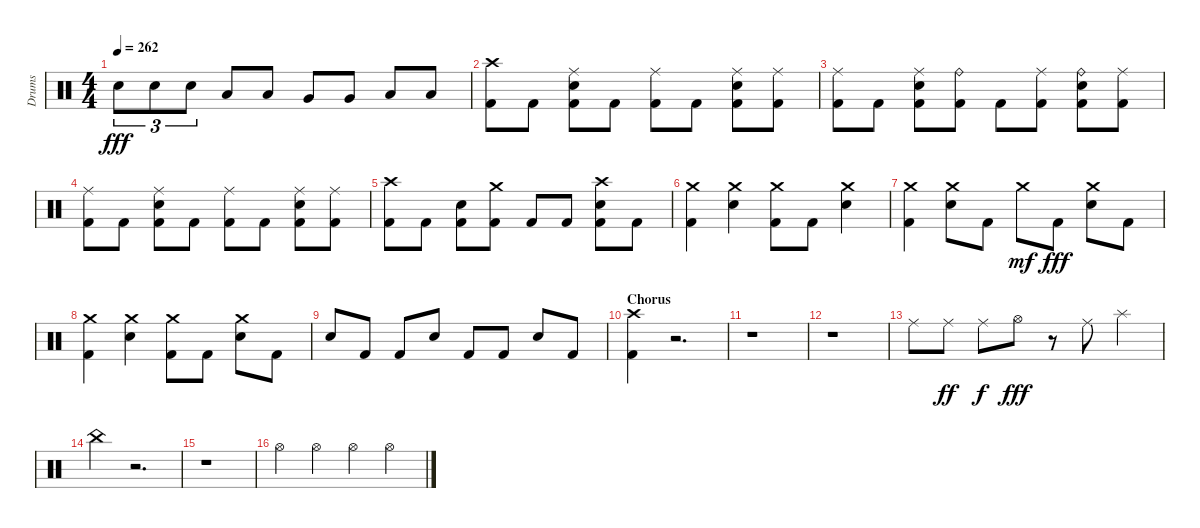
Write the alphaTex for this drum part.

\track ("Drums" "Drums") {instrument percussion}
\staff {score}
\articulation defaults
\ts (4 4)
\tempo 262
\clef neutral
\ks aminor "Snare (hit) 2".8{tu (3 2) dy fff} "Snare (hit) 2".8{tu (3 2)} "Snare (hit) 2".8{tu (3 2)} "Low Tom (hit)".8 "Low Tom (hit)".8 "Very Low Tom (hit)".8 "Very Low Tom (hit)".8 "Low Floor Tom (hit)".8 "Low Floor Tom (hit)".8
|
("Kick (hit) 2" "Crash high (hit)").8 "Kick (hit) 2".8 ("Kick (hit) 2" "Snare (hit) 2" "Ride (middle)").8 "Kick (hit) 2".8 ("Kick (hit) 2" "Ride (middle)").8 "Kick (hit) 2".8 ("Kick (hit) 2" "Snare (hit) 2" "Ride (middle)").8 ("Kick (hit) 2" "Ride (middle)").8 |
("Kick (hit) 2" "Ride (middle)").8 "Kick (hit) 2".8 ("Kick (hit) 2" "Snare (hit) 2" "Ride (middle)").8 ("Kick (hit) 2" "Ride (bell)").8 "Kick (hit) 2".8 ("Kick (hit) 2" "Ride (middle)").8 ("Kick (hit) 2" "Snare (hit) 2" "Ride (bell)").8 ("Kick (hit) 2" "Ride (middle)").8 |
("Kick (hit) 2" "Ride (middle)").8 "Kick (hit) 2".8 ("Kick (hit) 2" "Snare (hit) 2" "Ride (middle)").8 "Kick (hit) 2".8 ("Kick (hit) 2" "Ride (middle)").8 "Kick (hit) 2".8 ("Kick (hit) 2" "Snare (hit) 2" "Ride (middle)").8 ("Kick (hit) 2" "Ride (middle)").8 |
("Kick (hit) 2" "Crash high (hit)").8 "Kick (hit) 2".8 ("Kick (hit) 2" "Snare (hit) 2").8 ("Kick (hit) 2" "Crash medium (hit)").8 "Kick (hit) 2".8 "Kick (hit) 2".8 ("Kick (hit) 2" "Snare (hit) 2" "Crash high (hit)").8 "Kick (hit) 2".8 |
("Kick (hit) 2" "Crash medium (hit)").4 ("Snare (hit) 2" "Crash medium (hit)").4 ("Kick (hit) 2" "Crash medium (hit)").8 "Kick (hit) 2".8 ("Snare (hit) 2" "Crash medium (hit)").4 |
("Kick (hit) 2" "Crash medium (hit)").4 ("Snare (hit) 2" "Crash medium (hit)").8 "Kick (hit) 2".8 "Crash medium (hit)".8{dy mf} "Kick (hit) 2".8{dy fff} ("Snare (hit) 2" "Crash medium (hit)").8 "Kick (hit) 2".8 |
("Kick (hit) 2" "Crash medium (hit)").4 ("Snare (hit) 2" "Crash medium (hit)").4 ("Kick (hit) 2" "Crash medium (hit)").8 "Kick (hit) 2".8 ("Snare (hit) 2" "Crash medium (hit)").8 "Kick (hit) 2".8 |
"Snare (hit) 2".8 "Kick (hit) 2".8 "Kick (hit) 2".8 "Snare (hit) 2".8 "Kick (hit) 2".8 "Kick (hit) 2".8 "Snare (hit) 2".8 "Kick (hit) 2".8 |
\section ("" "Chorus")
("Kick (hit) 2" "Crash high (hit)").4 r.2{d} |
r.1 |
r.1 |
"Ride (middle)".8 "Ride (middle)".8{dy ff} "Ride (middle)".8{dy f} "Hi-Hat (open)".8{dy fff} r.8 "Ride (middle)".8 "Splash (hit)".4 |
"China (hit)".4 r.2{d} |
r.1 |
"Hi-Hat (open)".4 "Hi-Hat (open)".4 "Hi-Hat (open)".4 "Hi-Hat (open)".4
